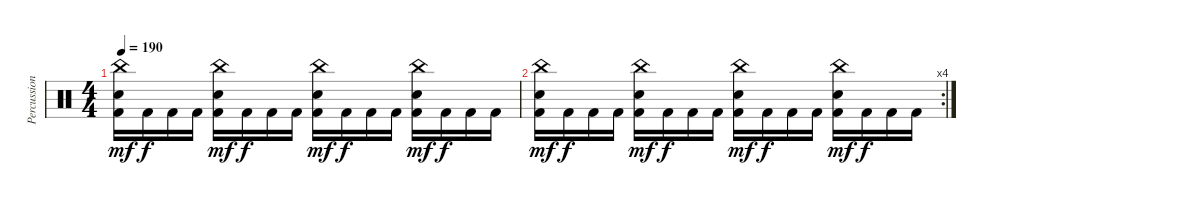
\track ("Percussions" "Percussion") {instrument percussion}
\staff {score}
\articulation defaults
\ts (4 4)
\tempo 190
\clef neutral
\ks c
("China (hit)" "Electric Snare (hit)" "Kick (hit) 2").16{dy mf} "Kick (hit) 2".16{dy f} "Kick (hit) 2".16 "Kick (hit) 2".16 ("China (hit)" "Electric Snare (hit)" "Kick (hit) 2").16{dy mf} "Kick (hit) 2".16{dy f} "Kick (hit) 2".16 "Kick (hit) 2".16 ("China (hit)" "Electric Snare (hit)" "Kick (hit) 2").16{dy mf} "Kick (hit) 2".16{dy f} "Kick (hit) 2".16 "Kick (hit) 2".16 ("China (hit)" "Electric Snare (hit)" "Kick (hit) 2").16{dy mf} "Kick (hit) 2".16{dy f} "Kick (hit) 2".16 "Kick (hit) 2".16 |
\rc 4
("China (hit)" "Electric Snare (hit)" "Kick (hit) 2").16{dy mf} "Kick (hit) 2".16{dy f} "Kick (hit) 2".16 "Kick (hit) 2".16 ("China (hit)" "Electric Snare (hit)" "Kick (hit) 2").16{dy mf} "Kick (hit) 2".16{dy f} "Kick (hit) 2".16 "Kick (hit) 2".16 ("China (hit)" "Electric Snare (hit)" "Kick (hit) 2").16{dy mf} "Kick (hit) 2".16{dy f} "Kick (hit) 2".16 "Kick (hit) 2".16 ("China (hit)" "Electric Snare (hit)" "Kick (hit) 2").16{dy mf} "Kick (hit) 2".16{dy f} "Kick (hit) 2".16 "Kick (hit) 2".16
